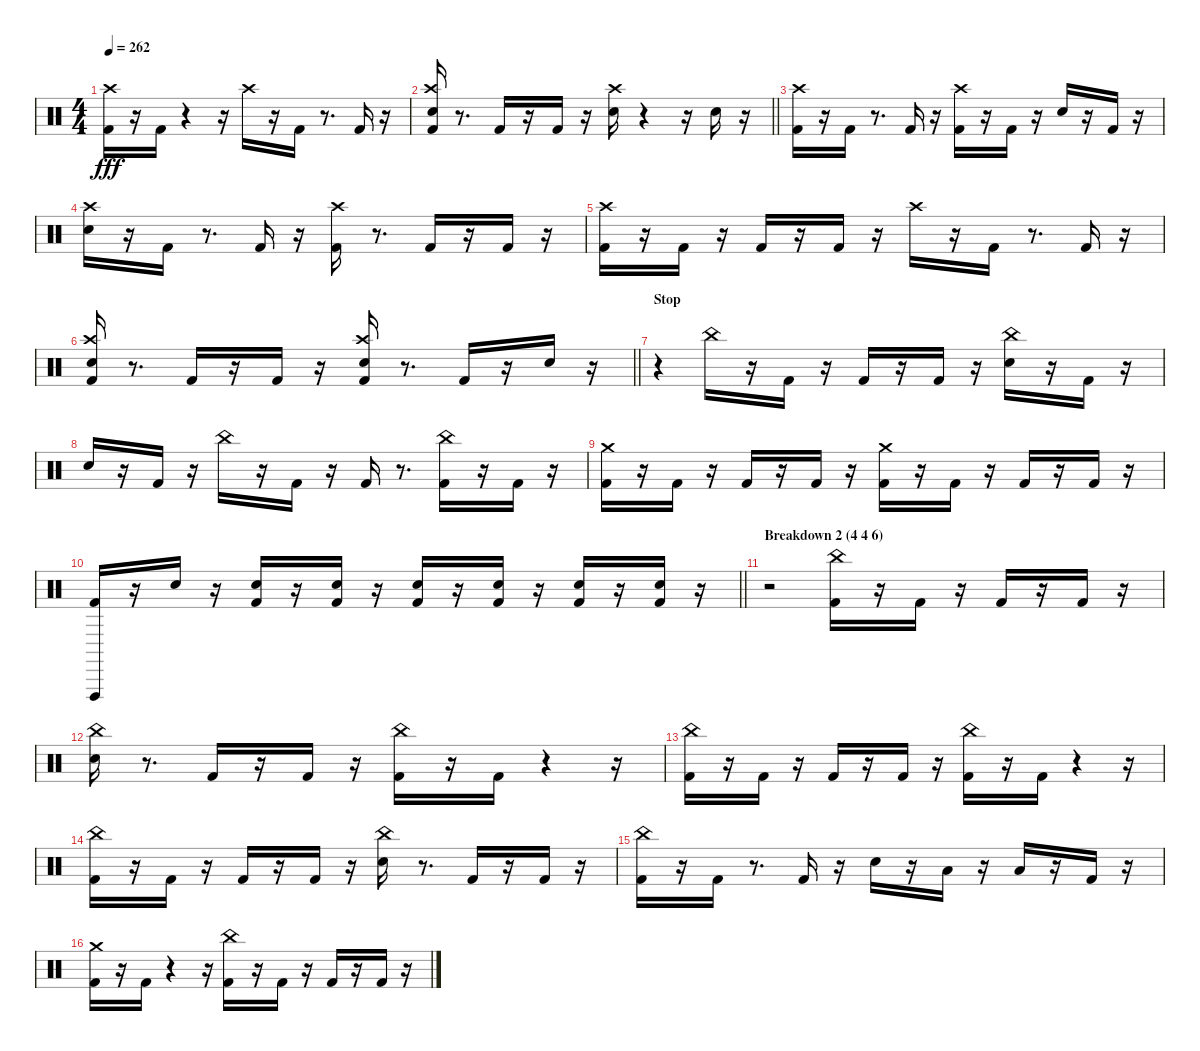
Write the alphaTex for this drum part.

\track "" {instrument percussion}
\staff {score}
\articulation defaults
\ts (4 4)
\tempo 262
\clef neutral
\ks c
("Kick (hit) 2" "Crash high (hit)").16{dy fff} r.16 "Kick (hit) 2".16 r.4 r.16 "Crash high (hit)".16 r.16 "Kick (hit) 2".16 r.8{d} "Kick (hit) 2".16 r.16 |
\barLineRight lightlight
("Kick (hit) 2" "Electric Snare (hit)" "Crash high (hit)").16 r.8{d} "Kick (hit) 2".16 r.16 "Kick (hit) 2".16 r.16 ("Electric Snare (hit)" "Crash high (hit)").16 r.4 r.16 "Snare (hit) 2".16 r.16 |
\section ("" "")
("Kick (hit) 2" "Crash high (hit)").16 r.16 "Kick (hit) 2".16 r.8{d} "Kick (hit) 2".16 r.16 ("Kick (hit) 2" "Crash high (hit)").16 r.16 "Kick (hit) 2".16 r.16 "Electric Snare (hit)".16 r.16 "Kick (hit) 2".16 r.16 |
("Electric Snare (hit)" "Crash high (hit)").16 r.16 "Kick (hit) 2".16 r.8{d} "Kick (hit) 2".16 r.16 ("Kick (hit) 2" "Crash high (hit)").16 r.8{d} "Kick (hit) 2".16 r.16 "Kick (hit) 2".16 r.16 |
("Kick (hit) 2" "Crash high (hit)").16 r.16 "Kick (hit) 2".16 r.16 "Kick (hit) 2".16 r.16 "Kick (hit) 2".16 r.16 "Crash high (hit)".16 r.16 "Kick (hit) 2".16 r.8{d} "Kick (hit) 2".16 r.16 |
\barLineRight lightlight
("Kick (hit) 2" "Electric Snare (hit)" "Crash high (hit)").16 r.8{d} "Kick (hit) 2".16 r.16 "Kick (hit) 2".16 r.16 ("Kick (hit) 2" "Electric Snare (hit)" "Crash high (hit)").16 r.8{d} "Kick (hit) 2".16 r.16 "Snare (hit) 2".16 r.16 |
\section ("" "Stop")
r.4 "China (hit)".16 r.16 "Kick (hit) 2".16 r.16 "Kick (hit) 2".16 r.16 "Kick (hit) 2".16 r.16 ("Electric Snare (hit)" "China (hit)").16 r.16 "Kick (hit) 2".16 r.16 |
"Electric Snare (hit)".16 r.16 "Kick (hit) 2".16 r.16 "China (hit)".16 r.16 "Kick (hit) 2".16 r.16 "Kick (hit) 2".16 r.8{d} ("Kick (hit) 2" "China (hit)").16 r.16 "Kick (hit) 2".16 r.16 |
("Kick (hit) 2" "Crash medium (hit)").16 r.16 "Kick (hit) 2".16 r.16 "Kick (hit) 2".16 r.16 "Kick (hit) 2".16 r.16 ("Kick (hit) 2" "Crash medium (hit)").16 r.16 "Kick (hit) 2".16 r.16 "Kick (hit) 2".16 r.16 "Kick (hit) 2".16 r.16 |
\barLineRight lightlight
("Vibraslap (hit)" "Kick (hit) 2").16 r.16 "Electric Snare (hit)".16 r.16 ("Snare (hit) 2" "Kick (hit) 2").16 r.16 ("Snare (hit) 2" "Kick (hit) 2").16 r.16 ("Snare (hit) 2" "Kick (hit) 2").16 r.16 ("Snare (hit) 2" "Kick (hit) 2").16 r.16 ("Snare (hit) 2" "Kick (hit) 2").16 r.16 ("Kick (hit) 2" "Snare (hit) 2").16 r.16 |
\section ("" "Breakdown 2 (4 4 6)")
r.2 ("Kick (hit) 2" "China (hit)").16 r.16 "Kick (hit) 2".16 r.16 "Kick (hit) 2".16 r.16 "Kick (hit) 2".16 r.16 |
("Snare (hit) 2" "China (hit)").16 r.8{d} "Kick (hit) 2".16 r.16 "Kick (hit) 2".16 r.16 ("Kick (hit) 2" "China (hit)").16 r.16 "Kick (hit) 2".16 r.4 r.16 |
("Kick (hit) 2" "China (hit)").16 r.16 "Kick (hit) 2".16 r.16 "Kick (hit) 2".16 r.16 "Kick (hit) 2".16 r.16 ("Kick (hit) 2" "China (hit)").16 r.16 "Kick (hit) 2".16 r.4 r.16 |
("Kick (hit) 2" "China (hit)").16 r.16 "Kick (hit) 2".16 r.16 "Kick (hit) 2".16 r.16 "Kick (hit) 2".16 r.16 ("China (hit)" "Electric Snare (hit)").16 r.8{d} "Kick (hit) 2".16 r.16 "Kick (hit) 2".16 r.16 |
("Kick (hit) 2" "China (hit)").16 r.16 "Kick (hit) 2".16 r.8{d} "Kick (hit) 2".16 r.16 "Snare (hit) 2".16 r.16 "Low Tom (hit)".16 r.16 "Low Floor Tom (hit)".16 r.16 "Kick (hit) 2".16 r.16 |
("Kick (hit) 2" "Crash medium (hit)").16 r.16 "Kick (hit) 2".16 r.4 r.16 ("Kick (hit) 2" "China (hit)").16 r.16 "Kick (hit) 2".16 r.16 "Kick (hit) 2".16 r.16 "Kick (hit) 2".16 r.16
